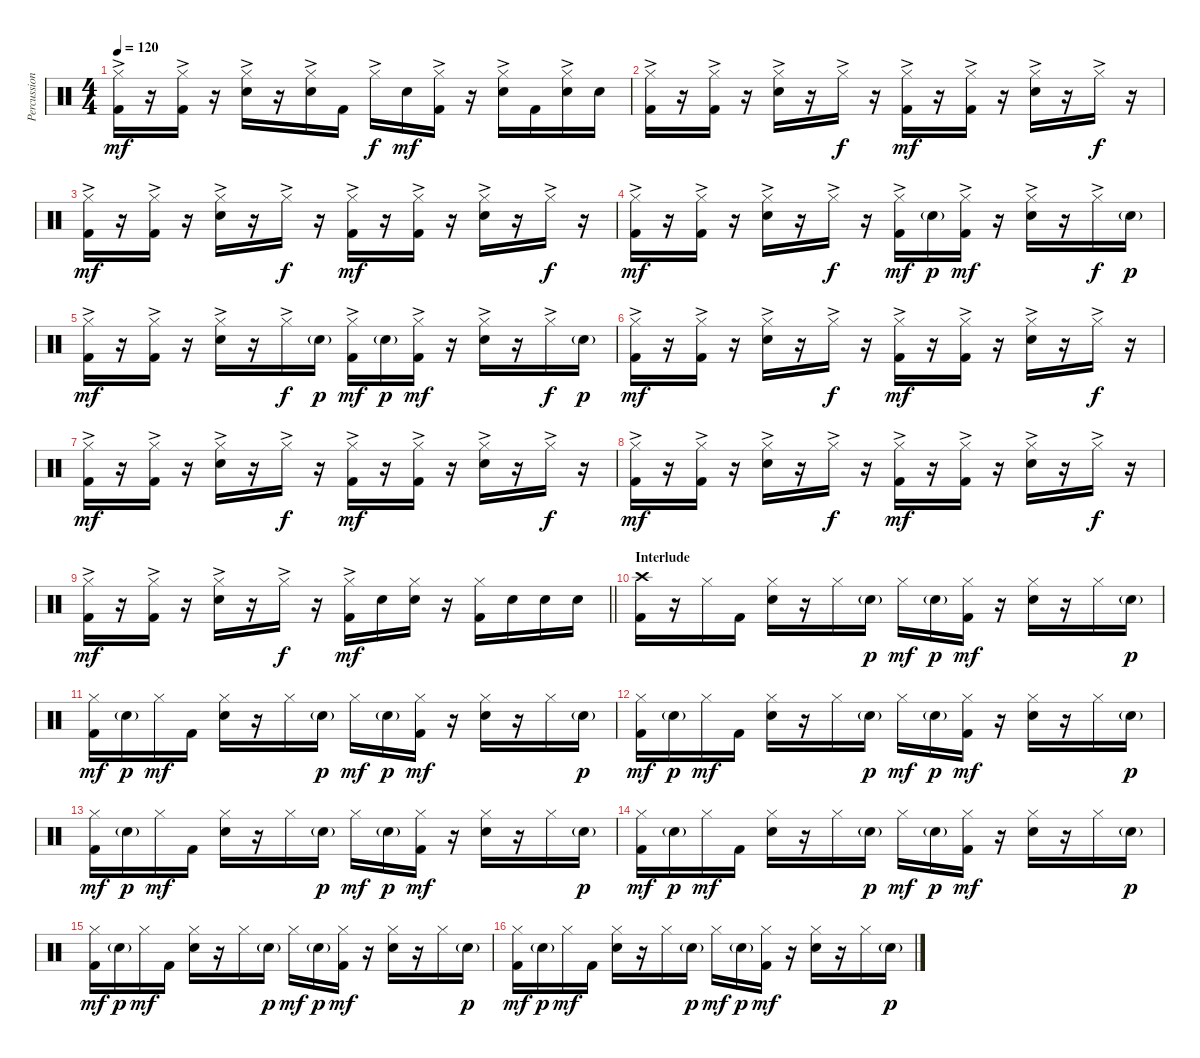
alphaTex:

\track ("Percussion" "Percussion") {instrument percussion}
\staff {score}
\articulation defaults
\ts (4 4)
\tempo 120
\clef neutral
\ks c
("Hi-Hat (closed)"{ac} "Kick (hit) 2").16{dy mf} r.16 ("Hi-Hat (closed)"{ac} "Kick (hit) 2").16 r.16 ("Hi-Hat (closed)"{ac} "Electric Snare (hit)").16 r.16 ("Hi-Hat (closed)"{ac} "Electric Snare (hit)").16 "Kick (hit) 2".16 "Hi-Hat (closed)"{ac}.16{dy f} "Electric Snare (hit)".16{dy mf} ("Hi-Hat (closed)"{ac} "Kick (hit) 2").16 r.16 ("Hi-Hat (closed)"{ac} "Electric Snare (hit)").16 "Kick (hit) 2".16 ("Hi-Hat (closed)"{ac} "Electric Snare (hit)").16 "Electric Snare (hit)".16 |
("Hi-Hat (closed)"{ac} "Kick (hit) 2").16 r.16 ("Hi-Hat (closed)"{ac} "Kick (hit) 2").16 r.16 ("Hi-Hat (closed)"{ac} "Electric Snare (hit)").16 r.16 "Hi-Hat (closed)"{ac}.16{dy f} r.16 ("Hi-Hat (closed)"{ac} "Kick (hit) 2").16{dy mf} r.16 ("Hi-Hat (closed)"{ac} "Kick (hit) 2").16 r.16 ("Hi-Hat (closed)"{ac} "Electric Snare (hit)").16 r.16 "Hi-Hat (closed)"{ac}.16{dy f} r.16 |
("Hi-Hat (closed)"{ac} "Kick (hit) 2").16{dy mf} r.16 ("Hi-Hat (closed)"{ac} "Kick (hit) 2").16 r.16 ("Hi-Hat (closed)"{ac} "Electric Snare (hit)").16 r.16 "Hi-Hat (closed)"{ac}.16{dy f} r.16 ("Hi-Hat (closed)"{ac} "Kick (hit) 2").16{dy mf} r.16 ("Hi-Hat (closed)"{ac} "Kick (hit) 2").16 r.16 ("Hi-Hat (closed)"{ac} "Electric Snare (hit)").16 r.16 "Hi-Hat (closed)"{ac}.16{dy f} r.16 |
("Hi-Hat (closed)"{ac} "Kick (hit) 2").16{dy mf} r.16 ("Hi-Hat (closed)"{ac} "Kick (hit) 2").16 r.16 ("Hi-Hat (closed)"{ac} "Electric Snare (hit)").16 r.16 "Hi-Hat (closed)"{ac}.16{dy f} r.16 ("Hi-Hat (closed)"{ac} "Kick (hit) 2").16{dy mf} "Electric Snare (hit)"{g}.16{dy p} ("Hi-Hat (closed)"{ac} "Kick (hit) 2").16{dy mf} r.16 ("Hi-Hat (closed)"{ac} "Electric Snare (hit)").16 r.16 "Hi-Hat (closed)"{ac}.16{dy f} "Electric Snare (hit)"{g}.16{dy p} |
("Hi-Hat (closed)"{ac} "Kick (hit) 2").16{dy mf} r.16 ("Hi-Hat (closed)"{ac} "Kick (hit) 2").16 r.16 ("Hi-Hat (closed)"{ac} "Electric Snare (hit)").16 r.16 "Hi-Hat (closed)"{ac}.16{dy f} "Electric Snare (hit)"{g}.16{dy p} ("Hi-Hat (closed)"{ac} "Kick (hit) 2").16{dy mf} "Electric Snare (hit)"{g}.16{dy p} ("Hi-Hat (closed)"{ac} "Kick (hit) 2").16{dy mf} r.16 ("Hi-Hat (closed)"{ac} "Electric Snare (hit)").16 r.16 "Hi-Hat (closed)"{ac}.16{dy f} "Electric Snare (hit)"{g}.16{dy p} |
("Hi-Hat (closed)"{ac} "Kick (hit) 2").16{dy mf} r.16 ("Hi-Hat (closed)"{ac} "Kick (hit) 2").16 r.16 ("Hi-Hat (closed)"{ac} "Electric Snare (hit)").16 r.16 "Hi-Hat (closed)"{ac}.16{dy f} r.16 ("Hi-Hat (closed)"{ac} "Kick (hit) 2").16{dy mf} r.16 ("Hi-Hat (closed)"{ac} "Kick (hit) 2").16 r.16 ("Hi-Hat (closed)"{ac} "Electric Snare (hit)").16 r.16 "Hi-Hat (closed)"{ac}.16{dy f} r.16 |
("Hi-Hat (closed)"{ac} "Kick (hit) 2").16{dy mf} r.16 ("Hi-Hat (closed)"{ac} "Kick (hit) 2").16 r.16 ("Hi-Hat (closed)"{ac} "Electric Snare (hit)").16 r.16 "Hi-Hat (closed)"{ac}.16{dy f} r.16 ("Hi-Hat (closed)"{ac} "Kick (hit) 2").16{dy mf} r.16 ("Hi-Hat (closed)"{ac} "Kick (hit) 2").16 r.16 ("Hi-Hat (closed)"{ac} "Electric Snare (hit)").16 r.16 "Hi-Hat (closed)"{ac}.16{dy f} r.16 |
("Hi-Hat (closed)"{ac} "Kick (hit) 2").16{dy mf} r.16 ("Hi-Hat (closed)"{ac} "Kick (hit) 2").16 r.16 ("Hi-Hat (closed)"{ac} "Electric Snare (hit)").16 r.16 "Hi-Hat (closed)"{ac}.16{dy f} r.16 ("Hi-Hat (closed)"{ac} "Kick (hit) 2").16{dy mf} r.16 ("Hi-Hat (closed)"{ac} "Kick (hit) 2").16 r.16 ("Hi-Hat (closed)"{ac} "Electric Snare (hit)").16 r.16 "Hi-Hat (closed)"{ac}.16{dy f} r.16 |
\barLineRight lightlight
("Hi-Hat (closed)"{ac} "Kick (hit) 2").16{dy mf} r.16 ("Hi-Hat (closed)"{ac} "Kick (hit) 2").16 r.16 ("Hi-Hat (closed)"{ac} "Electric Snare (hit)").16 r.16 "Hi-Hat (closed)"{ac}.16{dy f} r.16 ("Hi-Hat (closed)"{ac} "Kick (hit) 2").16{dy mf} "Electric Snare (hit)".16 ("Hi-Hat (closed)" "Electric Snare (hit)").16 r.16 ("Hi-Hat (closed)" "Kick (hit) 2").16 "Electric Snare (hit)".16 "Electric Snare (hit)".16 "Electric Snare (hit)".16 |
\section ("" "Interlude")
("Crash high (hit)" "Kick (hit) 2").16 r.16 "Hi-Hat (closed)".16 "Kick (hit) 2".16 ("Hi-Hat (closed)" "Electric Snare (hit)").16 r.16 "Hi-Hat (closed)".16 "Electric Snare (hit)"{g}.16{dy p} "Hi-Hat (closed)".16{dy mf} "Electric Snare (hit)"{g}.16{dy p} ("Hi-Hat (closed)" "Kick (hit) 2").16{dy mf} r.16 ("Hi-Hat (closed)" "Electric Snare (hit)").16 r.16 "Hi-Hat (closed)".16 "Electric Snare (hit)"{g}.16{dy p} |
("Hi-Hat (closed)" "Kick (hit) 2").16{dy mf} "Electric Snare (hit)"{g}.16{dy p} "Hi-Hat (closed)".16{dy mf} "Kick (hit) 2".16 ("Hi-Hat (closed)" "Electric Snare (hit)").16 r.16 "Hi-Hat (closed)".16 "Electric Snare (hit)"{g}.16{dy p} "Hi-Hat (closed)".16{dy mf} "Electric Snare (hit)"{g}.16{dy p} ("Hi-Hat (closed)" "Kick (hit) 2").16{dy mf} r.16 ("Hi-Hat (closed)" "Electric Snare (hit)").16 r.16 "Hi-Hat (closed)".16 "Electric Snare (hit)"{g}.16{dy p} |
("Hi-Hat (closed)" "Kick (hit) 2").16{dy mf} "Electric Snare (hit)"{g}.16{dy p} "Hi-Hat (closed)".16{dy mf} "Kick (hit) 2".16 ("Hi-Hat (closed)" "Electric Snare (hit)").16 r.16 "Hi-Hat (closed)".16 "Electric Snare (hit)"{g}.16{dy p} "Hi-Hat (closed)".16{dy mf} "Electric Snare (hit)"{g}.16{dy p} ("Hi-Hat (closed)" "Kick (hit) 2").16{dy mf} r.16 ("Hi-Hat (closed)" "Electric Snare (hit)").16 r.16 "Hi-Hat (closed)".16 "Electric Snare (hit)"{g}.16{dy p} |
("Hi-Hat (closed)" "Kick (hit) 2").16{dy mf} "Electric Snare (hit)"{g}.16{dy p} "Hi-Hat (closed)".16{dy mf} "Kick (hit) 2".16 ("Hi-Hat (closed)" "Electric Snare (hit)").16 r.16 "Hi-Hat (closed)".16 "Electric Snare (hit)"{g}.16{dy p} "Hi-Hat (closed)".16{dy mf} "Electric Snare (hit)"{g}.16{dy p} ("Hi-Hat (closed)" "Kick (hit) 2").16{dy mf} r.16 ("Hi-Hat (closed)" "Electric Snare (hit)").16 r.16 "Hi-Hat (closed)".16 "Electric Snare (hit)"{g}.16{dy p} |
("Hi-Hat (closed)" "Kick (hit) 2").16{dy mf} "Electric Snare (hit)"{g}.16{dy p} "Hi-Hat (closed)".16{dy mf} "Kick (hit) 2".16 ("Hi-Hat (closed)" "Electric Snare (hit)").16 r.16 "Hi-Hat (closed)".16 "Electric Snare (hit)"{g}.16{dy p} "Hi-Hat (closed)".16{dy mf} "Electric Snare (hit)"{g}.16{dy p} ("Hi-Hat (closed)" "Kick (hit) 2").16{dy mf} r.16 ("Hi-Hat (closed)" "Electric Snare (hit)").16 r.16 "Hi-Hat (closed)".16 "Electric Snare (hit)"{g}.16{dy p} |
("Hi-Hat (closed)" "Kick (hit) 2").16{dy mf} "Electric Snare (hit)"{g}.16{dy p} "Hi-Hat (closed)".16{dy mf} "Kick (hit) 2".16 ("Hi-Hat (closed)" "Electric Snare (hit)").16 r.16 "Hi-Hat (closed)".16 "Electric Snare (hit)"{g}.16{dy p} "Hi-Hat (closed)".16{dy mf} "Electric Snare (hit)"{g}.16{dy p} ("Hi-Hat (closed)" "Kick (hit) 2").16{dy mf} r.16 ("Hi-Hat (closed)" "Electric Snare (hit)").16 r.16 "Hi-Hat (closed)".16 "Electric Snare (hit)"{g}.16{dy p} |
("Hi-Hat (closed)" "Kick (hit) 2").16{dy mf} "Electric Snare (hit)"{g}.16{dy p} "Hi-Hat (closed)".16{dy mf} "Kick (hit) 2".16 ("Hi-Hat (closed)" "Electric Snare (hit)").16 r.16 "Hi-Hat (closed)".16 "Electric Snare (hit)"{g}.16{dy p} "Hi-Hat (closed)".16{dy mf} "Electric Snare (hit)"{g}.16{dy p} ("Hi-Hat (closed)" "Kick (hit) 2").16{dy mf} r.16 ("Hi-Hat (closed)" "Electric Snare (hit)").16 r.16 "Hi-Hat (closed)".16 "Electric Snare (hit)"{g}.16{dy p}
